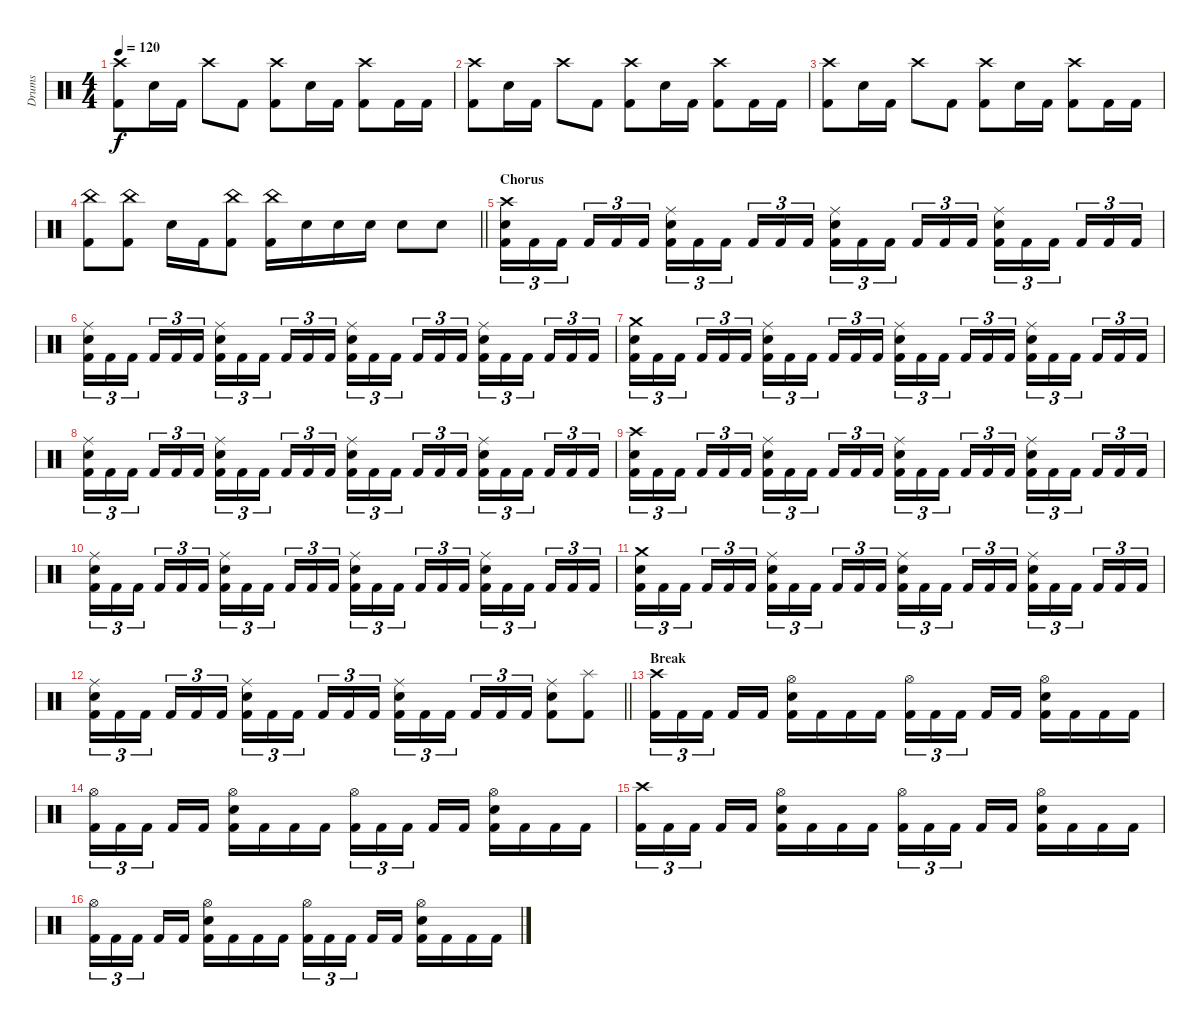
\track ("Drums" "Drums") {instrument percussion}
\staff {score}
\articulation defaults
\ts (4 4)
\tempo 120
\clef neutral
\ks c
("Crash high (hit)" "Kick (hit) 2").8{dy f} "Electric Snare (hit)".16 "Kick (hit) 2".16 "Crash high (hit)".8 "Kick (hit) 2".8 ("Crash high (hit)" "Kick (hit) 2").8 "Electric Snare (hit)".16 "Kick (hit) 2".16 ("Crash high (hit)" "Kick (hit) 2").8 "Kick (hit) 2".16 "Kick (hit) 2".16 |
("Crash high (hit)" "Kick (hit) 2").8 "Electric Snare (hit)".16 "Kick (hit) 2".16 "Crash high (hit)".8 "Kick (hit) 2".8 ("Crash high (hit)" "Kick (hit) 2").8 "Electric Snare (hit)".16 "Kick (hit) 2".16 ("Crash high (hit)" "Kick (hit) 2").8 "Kick (hit) 2".16 "Kick (hit) 2".16 |
("Crash high (hit)" "Kick (hit) 2").8 "Electric Snare (hit)".16 "Kick (hit) 2".16 "Crash high (hit)".8 "Kick (hit) 2".8 ("Crash high (hit)" "Kick (hit) 2").8 "Electric Snare (hit)".16 "Kick (hit) 2".16 ("Crash high (hit)" "Kick (hit) 2").8 "Kick (hit) 2".16 "Kick (hit) 2".16 |
\barLineRight lightlight
("China (hit)" "Kick (hit) 2").8 ("China (hit)" "Kick (hit) 2").8 "Electric Snare (hit)".16 "Kick (hit) 2".16 ("China (hit)" "Kick (hit) 2").8 ("China (hit)" "Kick (hit) 2").16 "Electric Snare (hit)".16 "Electric Snare (hit)".16 "Electric Snare (hit)".16 "Electric Snare (hit)".8 "Electric Snare (hit)".8 |
\section ("" "Chorus")
("Crash high (hit)" "Electric Snare (hit)" "Kick (hit) 2").16{tu (3 2)} "Kick (hit) 2".16{tu (3 2)} "Kick (hit) 2".16{tu (3 2)} "Kick (hit) 2".16{tu (3 2)} "Kick (hit) 2".16{tu (3 2)} "Kick (hit) 2".16{tu (3 2)} ("Ride (middle)" "Electric Snare (hit)" "Kick (hit) 2").16{tu (3 2)} "Kick (hit) 2".16{tu (3 2)} "Kick (hit) 2".16{tu (3 2)} "Kick (hit) 2".16{tu (3 2)} "Kick (hit) 2".16{tu (3 2)} "Kick (hit) 2".16{tu (3 2)} ("Ride (middle)" "Electric Snare (hit)" "Kick (hit) 2").16{tu (3 2)} "Kick (hit) 2".16{tu (3 2)} "Kick (hit) 2".16{tu (3 2)} "Kick (hit) 2".16{tu (3 2)} "Kick (hit) 2".16{tu (3 2)} "Kick (hit) 2".16{tu (3 2)} ("Ride (middle)" "Electric Snare (hit)" "Kick (hit) 2").16{tu (3 2)} "Kick (hit) 2".16{tu (3 2)} "Kick (hit) 2".16{tu (3 2)} "Kick (hit) 2".16{tu (3 2)} "Kick (hit) 2".16{tu (3 2)} "Kick (hit) 2".16{tu (3 2)} |
("Ride (middle)" "Electric Snare (hit)" "Kick (hit) 2").16{tu (3 2)} "Kick (hit) 2".16{tu (3 2)} "Kick (hit) 2".16{tu (3 2)} "Kick (hit) 2".16{tu (3 2)} "Kick (hit) 2".16{tu (3 2)} "Kick (hit) 2".16{tu (3 2)} ("Ride (middle)" "Electric Snare (hit)" "Kick (hit) 2").16{tu (3 2)} "Kick (hit) 2".16{tu (3 2)} "Kick (hit) 2".16{tu (3 2)} "Kick (hit) 2".16{tu (3 2)} "Kick (hit) 2".16{tu (3 2)} "Kick (hit) 2".16{tu (3 2)} ("Ride (middle)" "Electric Snare (hit)" "Kick (hit) 2").16{tu (3 2)} "Kick (hit) 2".16{tu (3 2)} "Kick (hit) 2".16{tu (3 2)} "Kick (hit) 2".16{tu (3 2)} "Kick (hit) 2".16{tu (3 2)} "Kick (hit) 2".16{tu (3 2)} ("Ride (middle)" "Electric Snare (hit)" "Kick (hit) 2").16{tu (3 2)} "Kick (hit) 2".16{tu (3 2)} "Kick (hit) 2".16{tu (3 2)} "Kick (hit) 2".16{tu (3 2)} "Kick (hit) 2".16{tu (3 2)} "Kick (hit) 2".16{tu (3 2)} |
("Crash medium (hit)" "Electric Snare (hit)" "Kick (hit) 2").16{tu (3 2)} "Kick (hit) 2".16{tu (3 2)} "Kick (hit) 2".16{tu (3 2)} "Kick (hit) 2".16{tu (3 2)} "Kick (hit) 2".16{tu (3 2)} "Kick (hit) 2".16{tu (3 2)} ("Ride (middle)" "Electric Snare (hit)" "Kick (hit) 2").16{tu (3 2)} "Kick (hit) 2".16{tu (3 2)} "Kick (hit) 2".16{tu (3 2)} "Kick (hit) 2".16{tu (3 2)} "Kick (hit) 2".16{tu (3 2)} "Kick (hit) 2".16{tu (3 2)} ("Ride (middle)" "Electric Snare (hit)" "Kick (hit) 2").16{tu (3 2)} "Kick (hit) 2".16{tu (3 2)} "Kick (hit) 2".16{tu (3 2)} "Kick (hit) 2".16{tu (3 2)} "Kick (hit) 2".16{tu (3 2)} "Kick (hit) 2".16{tu (3 2)} ("Ride (middle)" "Electric Snare (hit)" "Kick (hit) 2").16{tu (3 2)} "Kick (hit) 2".16{tu (3 2)} "Kick (hit) 2".16{tu (3 2)} "Kick (hit) 2".16{tu (3 2)} "Kick (hit) 2".16{tu (3 2)} "Kick (hit) 2".16{tu (3 2)} |
("Ride (middle)" "Electric Snare (hit)" "Kick (hit) 2").16{tu (3 2)} "Kick (hit) 2".16{tu (3 2)} "Kick (hit) 2".16{tu (3 2)} "Kick (hit) 2".16{tu (3 2)} "Kick (hit) 2".16{tu (3 2)} "Kick (hit) 2".16{tu (3 2)} ("Ride (middle)" "Electric Snare (hit)" "Kick (hit) 2").16{tu (3 2)} "Kick (hit) 2".16{tu (3 2)} "Kick (hit) 2".16{tu (3 2)} "Kick (hit) 2".16{tu (3 2)} "Kick (hit) 2".16{tu (3 2)} "Kick (hit) 2".16{tu (3 2)} ("Ride (middle)" "Electric Snare (hit)" "Kick (hit) 2").16{tu (3 2)} "Kick (hit) 2".16{tu (3 2)} "Kick (hit) 2".16{tu (3 2)} "Kick (hit) 2".16{tu (3 2)} "Kick (hit) 2".16{tu (3 2)} "Kick (hit) 2".16{tu (3 2)} ("Ride (middle)" "Electric Snare (hit)" "Kick (hit) 2").16{tu (3 2)} "Kick (hit) 2".16{tu (3 2)} "Kick (hit) 2".16{tu (3 2)} "Kick (hit) 2".16{tu (3 2)} "Kick (hit) 2".16{tu (3 2)} "Kick (hit) 2".16{tu (3 2)} |
("Crash high (hit)" "Electric Snare (hit)" "Kick (hit) 2").16{tu (3 2)} "Kick (hit) 2".16{tu (3 2)} "Kick (hit) 2".16{tu (3 2)} "Kick (hit) 2".16{tu (3 2)} "Kick (hit) 2".16{tu (3 2)} "Kick (hit) 2".16{tu (3 2)} ("Ride (middle)" "Electric Snare (hit)" "Kick (hit) 2").16{tu (3 2)} "Kick (hit) 2".16{tu (3 2)} "Kick (hit) 2".16{tu (3 2)} "Kick (hit) 2".16{tu (3 2)} "Kick (hit) 2".16{tu (3 2)} "Kick (hit) 2".16{tu (3 2)} ("Ride (middle)" "Electric Snare (hit)" "Kick (hit) 2").16{tu (3 2)} "Kick (hit) 2".16{tu (3 2)} "Kick (hit) 2".16{tu (3 2)} "Kick (hit) 2".16{tu (3 2)} "Kick (hit) 2".16{tu (3 2)} "Kick (hit) 2".16{tu (3 2)} ("Ride (middle)" "Electric Snare (hit)" "Kick (hit) 2").16{tu (3 2)} "Kick (hit) 2".16{tu (3 2)} "Kick (hit) 2".16{tu (3 2)} "Kick (hit) 2".16{tu (3 2)} "Kick (hit) 2".16{tu (3 2)} "Kick (hit) 2".16{tu (3 2)} |
("Ride (middle)" "Electric Snare (hit)" "Kick (hit) 2").16{tu (3 2)} "Kick (hit) 2".16{tu (3 2)} "Kick (hit) 2".16{tu (3 2)} "Kick (hit) 2".16{tu (3 2)} "Kick (hit) 2".16{tu (3 2)} "Kick (hit) 2".16{tu (3 2)} ("Ride (middle)" "Electric Snare (hit)" "Kick (hit) 2").16{tu (3 2)} "Kick (hit) 2".16{tu (3 2)} "Kick (hit) 2".16{tu (3 2)} "Kick (hit) 2".16{tu (3 2)} "Kick (hit) 2".16{tu (3 2)} "Kick (hit) 2".16{tu (3 2)} ("Ride (middle)" "Electric Snare (hit)" "Kick (hit) 2").16{tu (3 2)} "Kick (hit) 2".16{tu (3 2)} "Kick (hit) 2".16{tu (3 2)} "Kick (hit) 2".16{tu (3 2)} "Kick (hit) 2".16{tu (3 2)} "Kick (hit) 2".16{tu (3 2)} ("Ride (middle)" "Electric Snare (hit)" "Kick (hit) 2").16{tu (3 2)} "Kick (hit) 2".16{tu (3 2)} "Kick (hit) 2".16{tu (3 2)} "Kick (hit) 2".16{tu (3 2)} "Kick (hit) 2".16{tu (3 2)} "Kick (hit) 2".16{tu (3 2)} |
("Crash medium (hit)" "Electric Snare (hit)" "Kick (hit) 2").16{tu (3 2)} "Kick (hit) 2".16{tu (3 2)} "Kick (hit) 2".16{tu (3 2)} "Kick (hit) 2".16{tu (3 2)} "Kick (hit) 2".16{tu (3 2)} "Kick (hit) 2".16{tu (3 2)} ("Ride (middle)" "Electric Snare (hit)" "Kick (hit) 2").16{tu (3 2)} "Kick (hit) 2".16{tu (3 2)} "Kick (hit) 2".16{tu (3 2)} "Kick (hit) 2".16{tu (3 2)} "Kick (hit) 2".16{tu (3 2)} "Kick (hit) 2".16{tu (3 2)} ("Ride (middle)" "Electric Snare (hit)" "Kick (hit) 2").16{tu (3 2)} "Kick (hit) 2".16{tu (3 2)} "Kick (hit) 2".16{tu (3 2)} "Kick (hit) 2".16{tu (3 2)} "Kick (hit) 2".16{tu (3 2)} "Kick (hit) 2".16{tu (3 2)} ("Ride (middle)" "Electric Snare (hit)" "Kick (hit) 2").16{tu (3 2)} "Kick (hit) 2".16{tu (3 2)} "Kick (hit) 2".16{tu (3 2)} "Kick (hit) 2".16{tu (3 2)} "Kick (hit) 2".16{tu (3 2)} "Kick (hit) 2".16{tu (3 2)} |
\barLineRight lightlight
("Ride (middle)" "Electric Snare (hit)" "Kick (hit) 2").16{tu (3 2)} "Kick (hit) 2".16{tu (3 2)} "Kick (hit) 2".16{tu (3 2)} "Kick (hit) 2".16{tu (3 2)} "Kick (hit) 2".16{tu (3 2)} "Kick (hit) 2".16{tu (3 2)} ("Ride (middle)" "Electric Snare (hit)" "Kick (hit) 2").16{tu (3 2)} "Kick (hit) 2".16{tu (3 2)} "Kick (hit) 2".16{tu (3 2)} "Kick (hit) 2".16{tu (3 2)} "Kick (hit) 2".16{tu (3 2)} "Kick (hit) 2".16{tu (3 2)} ("Ride (middle)" "Electric Snare (hit)" "Kick (hit) 2").16{tu (3 2)} "Kick (hit) 2".16{tu (3 2)} "Kick (hit) 2".16{tu (3 2)} "Kick (hit) 2".16{tu (3 2)} "Kick (hit) 2".16{tu (3 2)} "Kick (hit) 2".16{tu (3 2)} ("Ride (middle)" "Electric Snare (hit)" "Kick (hit) 2").8 ("Splash (hit)" "Kick (hit) 2").8 |
\section ("" "Break")
("Crash high (hit)" "Kick (hit) 2").16{tu (3 2)} "Kick (hit) 2".16{tu (3 2)} "Kick (hit) 2".16{tu (3 2)} "Kick (hit) 2".16 "Kick (hit) 2".16 ("Hi-Hat (open)" "Electric Snare (hit)" "Kick (hit) 2").16 "Kick (hit) 2".16 "Kick (hit) 2".16 "Kick (hit) 2".16 ("Hi-Hat (open)" "Kick (hit) 2").16{tu (3 2)} "Kick (hit) 2".16{tu (3 2)} "Kick (hit) 2".16{tu (3 2)} "Kick (hit) 2".16 "Kick (hit) 2".16 ("Hi-Hat (open)" "Electric Snare (hit)" "Kick (hit) 2").16 "Kick (hit) 2".16 "Kick (hit) 2".16 "Kick (hit) 2".16 |
("Hi-Hat (open)" "Kick (hit) 2").16{tu (3 2)} "Kick (hit) 2".16{tu (3 2)} "Kick (hit) 2".16{tu (3 2)} "Kick (hit) 2".16 "Kick (hit) 2".16 ("Hi-Hat (open)" "Electric Snare (hit)" "Kick (hit) 2").16 "Kick (hit) 2".16 "Kick (hit) 2".16 "Kick (hit) 2".16 ("Hi-Hat (open)" "Kick (hit) 2").16{tu (3 2)} "Kick (hit) 2".16{tu (3 2)} "Kick (hit) 2".16{tu (3 2)} "Kick (hit) 2".16 "Kick (hit) 2".16 ("Hi-Hat (open)" "Electric Snare (hit)" "Kick (hit) 2").16 "Kick (hit) 2".16 "Kick (hit) 2".16 "Kick (hit) 2".16 |
("Crash high (hit)" "Kick (hit) 2").16{tu (3 2)} "Kick (hit) 2".16{tu (3 2)} "Kick (hit) 2".16{tu (3 2)} "Kick (hit) 2".16 "Kick (hit) 2".16 ("Hi-Hat (open)" "Electric Snare (hit)" "Kick (hit) 2").16 "Kick (hit) 2".16 "Kick (hit) 2".16 "Kick (hit) 2".16 ("Hi-Hat (open)" "Kick (hit) 2").16{tu (3 2)} "Kick (hit) 2".16{tu (3 2)} "Kick (hit) 2".16{tu (3 2)} "Kick (hit) 2".16 "Kick (hit) 2".16 ("Hi-Hat (open)" "Electric Snare (hit)" "Kick (hit) 2").16 "Kick (hit) 2".16 "Kick (hit) 2".16 "Kick (hit) 2".16 |
("Hi-Hat (open)" "Kick (hit) 2").16{tu (3 2)} "Kick (hit) 2".16{tu (3 2)} "Kick (hit) 2".16{tu (3 2)} "Kick (hit) 2".16 "Kick (hit) 2".16 ("Hi-Hat (open)" "Electric Snare (hit)" "Kick (hit) 2").16 "Kick (hit) 2".16 "Kick (hit) 2".16 "Kick (hit) 2".16 ("Hi-Hat (open)" "Kick (hit) 2").16{tu (3 2)} "Kick (hit) 2".16{tu (3 2)} "Kick (hit) 2".16{tu (3 2)} "Kick (hit) 2".16 "Kick (hit) 2".16 ("Hi-Hat (open)" "Electric Snare (hit)" "Kick (hit) 2").16 "Kick (hit) 2".16 "Kick (hit) 2".16 "Kick (hit) 2".16
